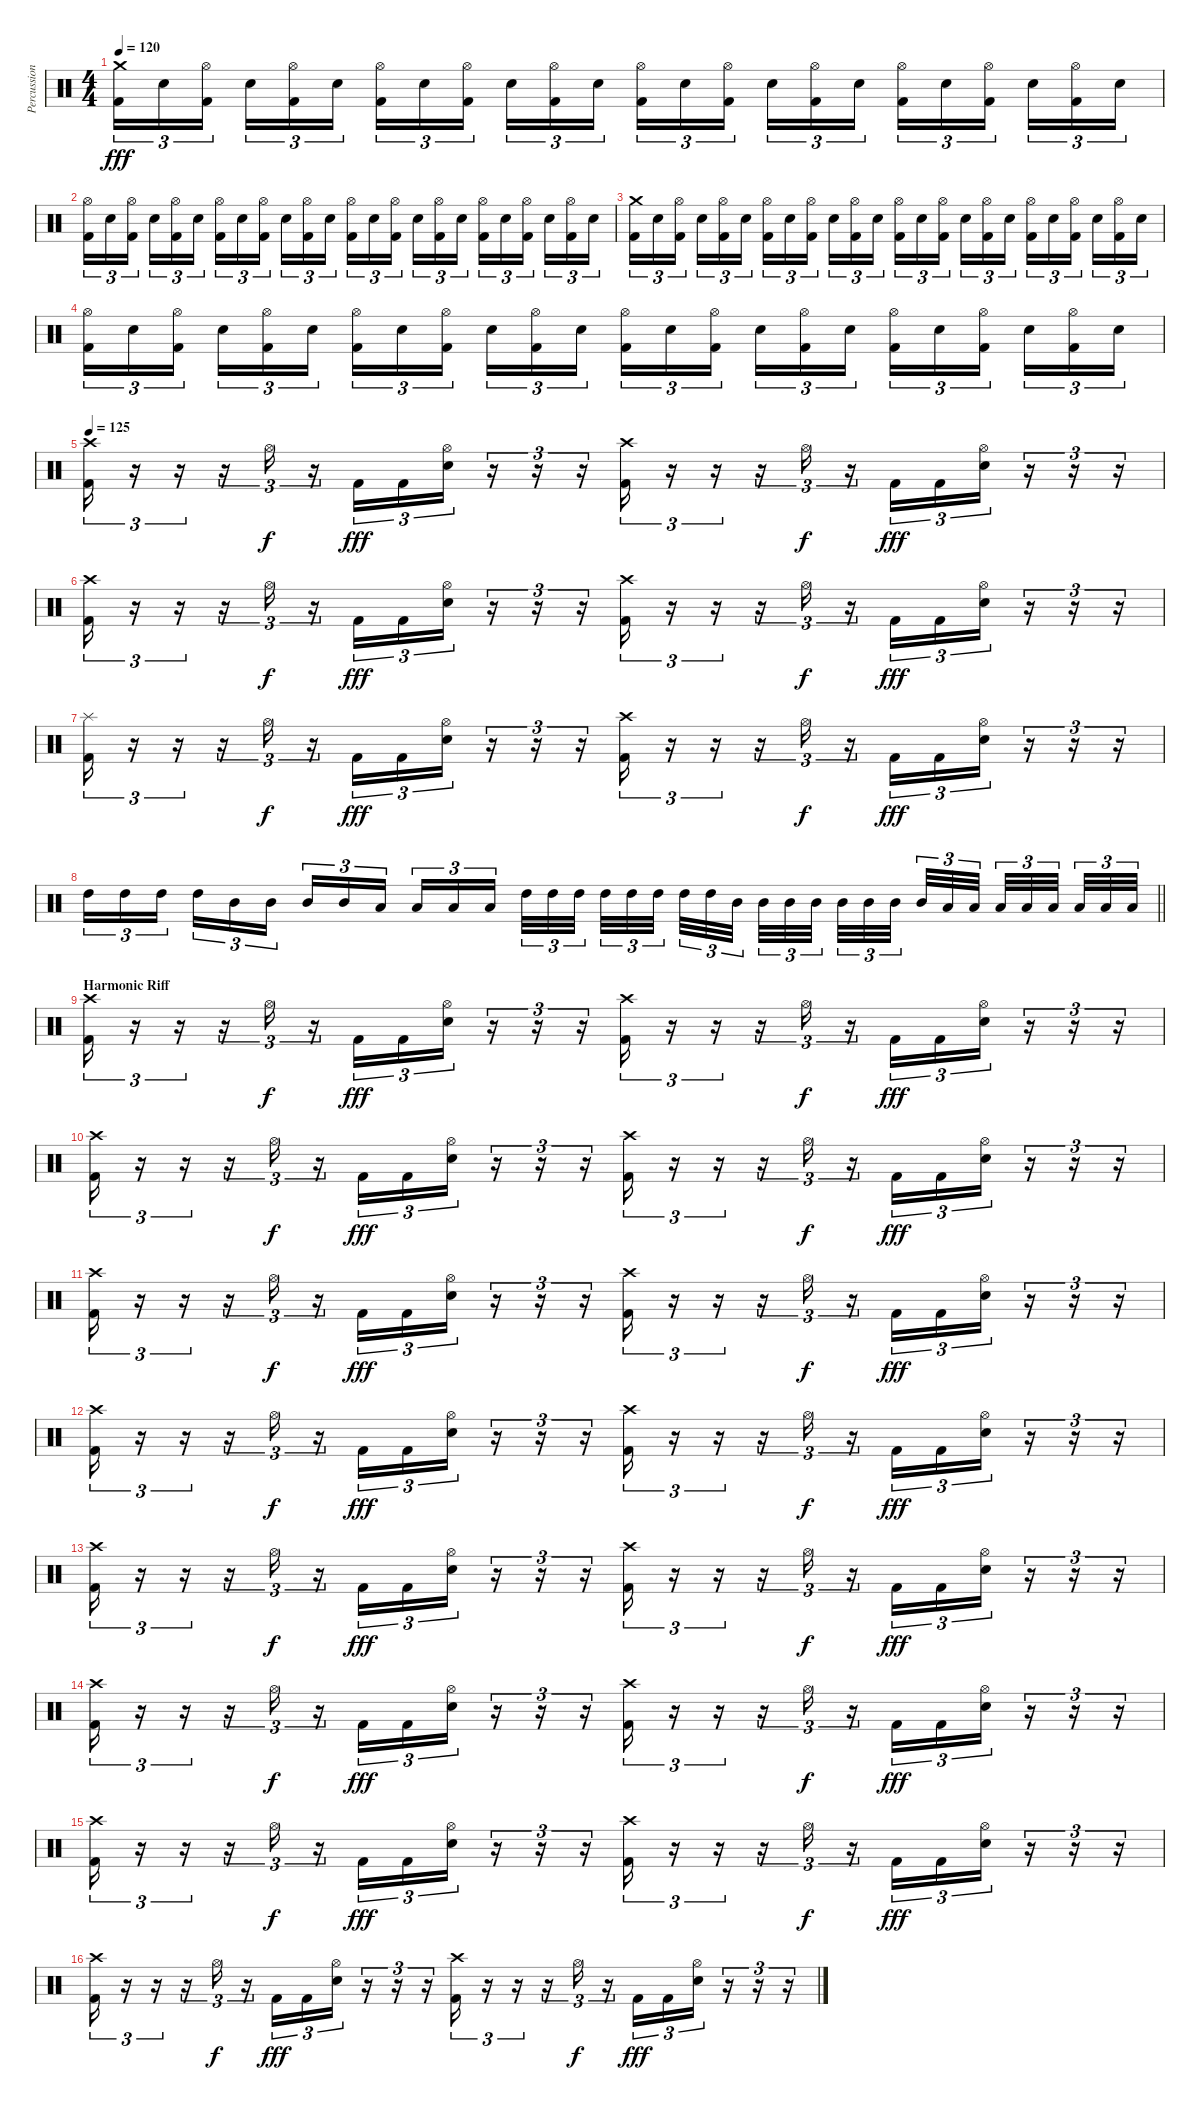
\track ("Percussions" "Percussion") {instrument percussion}
\staff {score}
\articulation defaults
\ts (4 4)
\tempo 120
\clef neutral
\ks c
("Crash medium (hit)" "Kick (hit) 2").16{tu (3 2) dy fff} "Snare (hit) 2".16{tu (3 2)} ("Hi-Hat (open)" "Kick (hit) 2").16{tu (3 2) beam splitsecondary} "Snare (hit) 2".16{tu (3 2)} ("Hi-Hat (open)" "Kick (hit) 2").16{tu (3 2)} "Snare (hit) 2".16{tu (3 2)} ("Hi-Hat (open)" "Kick (hit) 2").16{tu (3 2)} "Snare (hit) 2".16{tu (3 2)} ("Hi-Hat (open)" "Kick (hit) 2").16{tu (3 2) beam splitsecondary} "Snare (hit) 2".16{tu (3 2)} ("Hi-Hat (open)" "Kick (hit) 2").16{tu (3 2)} "Snare (hit) 2".16{tu (3 2)} ("Hi-Hat (open)" "Kick (hit) 2").16{tu (3 2)} "Snare (hit) 2".16{tu (3 2)} ("Hi-Hat (open)" "Kick (hit) 2").16{tu (3 2) beam splitsecondary} "Snare (hit) 2".16{tu (3 2)} ("Hi-Hat (open)" "Kick (hit) 2").16{tu (3 2)} "Snare (hit) 2".16{tu (3 2)} ("Hi-Hat (open)" "Kick (hit) 2").16{tu (3 2)} "Snare (hit) 2".16{tu (3 2)} ("Hi-Hat (open)" "Kick (hit) 2").16{tu (3 2) beam splitsecondary} "Snare (hit) 2".16{tu (3 2)} ("Hi-Hat (open)" "Kick (hit) 2").16{tu (3 2)} "Snare (hit) 2".16{tu (3 2)} |
("Hi-Hat (open)" "Kick (hit) 2").16{tu (3 2)} "Snare (hit) 2".16{tu (3 2)} ("Hi-Hat (open)" "Kick (hit) 2").16{tu (3 2) beam splitsecondary} "Snare (hit) 2".16{tu (3 2)} ("Hi-Hat (open)" "Kick (hit) 2").16{tu (3 2)} "Snare (hit) 2".16{tu (3 2)} ("Hi-Hat (open)" "Kick (hit) 2").16{tu (3 2)} "Snare (hit) 2".16{tu (3 2)} ("Hi-Hat (open)" "Kick (hit) 2").16{tu (3 2) beam splitsecondary} "Snare (hit) 2".16{tu (3 2)} ("Hi-Hat (open)" "Kick (hit) 2").16{tu (3 2)} "Snare (hit) 2".16{tu (3 2)} ("Hi-Hat (open)" "Kick (hit) 2").16{tu (3 2)} "Snare (hit) 2".16{tu (3 2)} ("Hi-Hat (open)" "Kick (hit) 2").16{tu (3 2) beam splitsecondary} "Snare (hit) 2".16{tu (3 2)} ("Hi-Hat (open)" "Kick (hit) 2").16{tu (3 2)} "Snare (hit) 2".16{tu (3 2)} ("Hi-Hat (open)" "Kick (hit) 2").16{tu (3 2)} "Snare (hit) 2".16{tu (3 2)} ("Hi-Hat (open)" "Kick (hit) 2").16{tu (3 2) beam splitsecondary} "Snare (hit) 2".16{tu (3 2)} ("Hi-Hat (open)" "Kick (hit) 2").16{tu (3 2)} "Snare (hit) 2".16{tu (3 2)} |
("Crash medium (hit)" "Kick (hit) 2").16{tu (3 2)} "Snare (hit) 2".16{tu (3 2)} ("Hi-Hat (open)" "Kick (hit) 2").16{tu (3 2) beam splitsecondary} "Snare (hit) 2".16{tu (3 2)} ("Hi-Hat (open)" "Kick (hit) 2").16{tu (3 2)} "Snare (hit) 2".16{tu (3 2)} ("Hi-Hat (open)" "Kick (hit) 2").16{tu (3 2)} "Snare (hit) 2".16{tu (3 2)} ("Hi-Hat (open)" "Kick (hit) 2").16{tu (3 2) beam splitsecondary} "Snare (hit) 2".16{tu (3 2)} ("Hi-Hat (open)" "Kick (hit) 2").16{tu (3 2)} "Snare (hit) 2".16{tu (3 2)} ("Hi-Hat (open)" "Kick (hit) 2").16{tu (3 2)} "Snare (hit) 2".16{tu (3 2)} ("Hi-Hat (open)" "Kick (hit) 2").16{tu (3 2) beam splitsecondary} "Snare (hit) 2".16{tu (3 2)} ("Hi-Hat (open)" "Kick (hit) 2").16{tu (3 2)} "Snare (hit) 2".16{tu (3 2)} ("Hi-Hat (open)" "Kick (hit) 2").16{tu (3 2)} "Snare (hit) 2".16{tu (3 2)} ("Hi-Hat (open)" "Kick (hit) 2").16{tu (3 2) beam splitsecondary} "Snare (hit) 2".16{tu (3 2)} ("Hi-Hat (open)" "Kick (hit) 2").16{tu (3 2)} "Snare (hit) 2".16{tu (3 2)} |
("Hi-Hat (open)" "Kick (hit) 2").16{tu (3 2)} "Snare (hit) 2".16{tu (3 2)} ("Hi-Hat (open)" "Kick (hit) 2").16{tu (3 2) beam splitsecondary} "Snare (hit) 2".16{tu (3 2)} ("Hi-Hat (open)" "Kick (hit) 2").16{tu (3 2)} "Snare (hit) 2".16{tu (3 2)} ("Hi-Hat (open)" "Kick (hit) 2").16{tu (3 2)} "Snare (hit) 2".16{tu (3 2)} ("Hi-Hat (open)" "Kick (hit) 2").16{tu (3 2) beam splitsecondary} "Snare (hit) 2".16{tu (3 2)} ("Hi-Hat (open)" "Kick (hit) 2").16{tu (3 2)} "Snare (hit) 2".16{tu (3 2)} ("Hi-Hat (open)" "Kick (hit) 2").16{tu (3 2)} "Snare (hit) 2".16{tu (3 2)} ("Hi-Hat (open)" "Kick (hit) 2").16{tu (3 2) beam splitsecondary} "Snare (hit) 2".16{tu (3 2)} ("Hi-Hat (open)" "Kick (hit) 2").16{tu (3 2)} "Snare (hit) 2".16{tu (3 2)} ("Hi-Hat (open)" "Kick (hit) 2").16{tu (3 2)} "Snare (hit) 2".16{tu (3 2)} ("Hi-Hat (open)" "Kick (hit) 2").16{tu (3 2) beam splitsecondary} "Snare (hit) 2".16{tu (3 2)} ("Hi-Hat (open)" "Kick (hit) 2").16{tu (3 2)} "Snare (hit) 2".16{tu (3 2)} |
\tempo 125
("Crash high (hit)" "Kick (hit) 2").16{tu (3 2)} r.16{tu (3 2)} r.16{tu (3 2)} r.16{tu (3 2)} "Hi-Hat (open)".16{tu (3 2) dy f} r.16{tu (3 2)} "Kick (hit) 2".16{tu (3 2) dy fff} "Kick (hit) 2".16{tu (3 2)} ("Hi-Hat (open)" "Snare (hit) 2").16{tu (3 2)} r.16{tu (3 2)} r.16{tu (3 2)} r.16{tu (3 2)} ("Crash high (hit)" "Kick (hit) 2").16{tu (3 2)} r.16{tu (3 2)} r.16{tu (3 2)} r.16{tu (3 2)} "Hi-Hat (open)".16{tu (3 2) dy f} r.16{tu (3 2)} "Kick (hit) 2".16{tu (3 2) dy fff} "Kick (hit) 2".16{tu (3 2)} ("Hi-Hat (open)" "Snare (hit) 2").16{tu (3 2)} r.16{tu (3 2)} r.16{tu (3 2)} r.16{tu (3 2)} |
("Crash high (hit)" "Kick (hit) 2").16{tu (3 2)} r.16{tu (3 2)} r.16{tu (3 2)} r.16{tu (3 2)} "Hi-Hat (open)".16{tu (3 2) dy f} r.16{tu (3 2)} "Kick (hit) 2".16{tu (3 2) dy fff} "Kick (hit) 2".16{tu (3 2)} ("Hi-Hat (open)" "Snare (hit) 2").16{tu (3 2)} r.16{tu (3 2)} r.16{tu (3 2)} r.16{tu (3 2)} ("Crash high (hit)" "Kick (hit) 2").16{tu (3 2)} r.16{tu (3 2)} r.16{tu (3 2)} r.16{tu (3 2)} "Hi-Hat (open)".16{tu (3 2) dy f} r.16{tu (3 2)} "Kick (hit) 2".16{tu (3 2) dy fff} "Kick (hit) 2".16{tu (3 2)} ("Hi-Hat (open)" "Snare (hit) 2").16{tu (3 2)} r.16{tu (3 2)} r.16{tu (3 2)} r.16{tu (3 2)} |
("Splash (hit)" "Kick (hit) 2").16{tu (3 2)} r.16{tu (3 2)} r.16{tu (3 2)} r.16{tu (3 2)} "Hi-Hat (open)".16{tu (3 2) dy f} r.16{tu (3 2)} "Kick (hit) 2".16{tu (3 2) dy fff} "Kick (hit) 2".16{tu (3 2)} ("Hi-Hat (open)" "Snare (hit) 2").16{tu (3 2)} r.16{tu (3 2)} r.16{tu (3 2)} r.16{tu (3 2)} ("Crash high (hit)" "Kick (hit) 2").16{tu (3 2)} r.16{tu (3 2)} r.16{tu (3 2)} r.16{tu (3 2)} "Hi-Hat (open)".16{tu (3 2) dy f} r.16{tu (3 2)} "Kick (hit) 2".16{tu (3 2) dy fff} "Kick (hit) 2".16{tu (3 2)} ("Hi-Hat (open)" "Snare (hit) 2").16{tu (3 2)} r.16{tu (3 2)} r.16{tu (3 2)} r.16{tu (3 2)} |
\barLineRight lightlight "High Tom (hit)".16{tu (3 2)} "High Tom (hit)".16{tu (3 2)} "High Tom (hit)".16{tu (3 2) beam splitsecondary} "High Tom (hit)".16{tu (3 2)} "Mid Tom (hit)".16{tu (3 2)} "Mid Tom (hit)".16{tu (3 2)} "Mid Tom (hit)".16{tu (3 2)} "Mid Tom (hit)".16{tu (3 2)} "Low Tom (hit)".16{tu (3 2) beam splitsecondary} "Low Tom (hit)".16{tu (3 2)} "Low Tom (hit)".16{tu (3 2)} "Low Tom (hit)".16{tu (3 2)} "High Tom (hit)".32{tu (3 2)} "High Tom (hit)".32{tu (3 2)} "High Tom (hit)".32{tu (3 2) beam splitsecondary} "High Tom (hit)".32{tu (3 2)} "High Tom (hit)".32{tu (3 2)} "High Tom (hit)".32{tu (3 2) beam splitsecondary} "High Tom (hit)".32{tu (3 2)} "High Tom (hit)".32{tu (3 2)} "Mid Tom (hit)".32{tu (3 2) beam splitsecondary} "Mid Tom (hit)".32{tu (3 2)} "Mid Tom (hit)".32{tu (3 2)} "Mid Tom (hit)".32{tu (3 2)} "Mid Tom (hit)".32{tu (3 2)} "Mid Tom (hit)".32{tu (3 2)} "Mid Tom (hit)".32{tu (3 2) beam splitsecondary} "Mid Tom (hit)".32{tu (3 2)} "Low Tom (hit)".32{tu (3 2)} "Low Tom (hit)".32{tu (3 2) beam splitsecondary} "Low Tom (hit)".32{tu (3 2)} "Low Tom (hit)".32{tu (3 2)} "Low Tom (hit)".32{tu (3 2) beam splitsecondary} "Low Tom (hit)".32{tu (3 2)} "Low Tom (hit)".32{tu (3 2)} "Low Tom (hit)".32{tu (3 2)}
|
\section ("" "Harmonic Riff")
("Crash high (hit)" "Kick (hit) 2").16{tu (3 2)} r.16{tu (3 2)} r.16{tu (3 2)} r.16{tu (3 2)} "Hi-Hat (open)".16{tu (3 2) dy f} r.16{tu (3 2)} "Kick (hit) 2".16{tu (3 2) dy fff} "Kick (hit) 2".16{tu (3 2)} ("Hi-Hat (open)" "Snare (hit) 2").16{tu (3 2)} r.16{tu (3 2)} r.16{tu (3 2)} r.16{tu (3 2)} ("Crash high (hit)" "Kick (hit) 2").16{tu (3 2)} r.16{tu (3 2)} r.16{tu (3 2)} r.16{tu (3 2)} "Hi-Hat (open)".16{tu (3 2) dy f} r.16{tu (3 2)} "Kick (hit) 2".16{tu (3 2) dy fff} "Kick (hit) 2".16{tu (3 2)} ("Hi-Hat (open)" "Snare (hit) 2").16{tu (3 2)} r.16{tu (3 2)} r.16{tu (3 2)} r.16{tu (3 2)} |
("Crash high (hit)" "Kick (hit) 2").16{tu (3 2)} r.16{tu (3 2)} r.16{tu (3 2)} r.16{tu (3 2)} "Hi-Hat (open)".16{tu (3 2) dy f} r.16{tu (3 2)} "Kick (hit) 2".16{tu (3 2) dy fff} "Kick (hit) 2".16{tu (3 2)} ("Hi-Hat (open)" "Snare (hit) 2").16{tu (3 2)} r.16{tu (3 2)} r.16{tu (3 2)} r.16{tu (3 2)} ("Crash high (hit)" "Kick (hit) 2").16{tu (3 2)} r.16{tu (3 2)} r.16{tu (3 2)} r.16{tu (3 2)} "Hi-Hat (open)".16{tu (3 2) dy f} r.16{tu (3 2)} "Kick (hit) 2".16{tu (3 2) dy fff} "Kick (hit) 2".16{tu (3 2)} ("Hi-Hat (open)" "Snare (hit) 2").16{tu (3 2)} r.16{tu (3 2)} r.16{tu (3 2)} r.16{tu (3 2)} |
("Crash high (hit)" "Kick (hit) 2").16{tu (3 2)} r.16{tu (3 2)} r.16{tu (3 2)} r.16{tu (3 2)} "Hi-Hat (open)".16{tu (3 2) dy f} r.16{tu (3 2)} "Kick (hit) 2".16{tu (3 2) dy fff} "Kick (hit) 2".16{tu (3 2)} ("Hi-Hat (open)" "Snare (hit) 2").16{tu (3 2)} r.16{tu (3 2)} r.16{tu (3 2)} r.16{tu (3 2)} ("Crash high (hit)" "Kick (hit) 2").16{tu (3 2)} r.16{tu (3 2)} r.16{tu (3 2)} r.16{tu (3 2)} "Hi-Hat (open)".16{tu (3 2) dy f} r.16{tu (3 2)} "Kick (hit) 2".16{tu (3 2) dy fff} "Kick (hit) 2".16{tu (3 2)} ("Hi-Hat (open)" "Snare (hit) 2").16{tu (3 2)} r.16{tu (3 2)} r.16{tu (3 2)} r.16{tu (3 2)} |
("Crash high (hit)" "Kick (hit) 2").16{tu (3 2)} r.16{tu (3 2)} r.16{tu (3 2)} r.16{tu (3 2)} "Hi-Hat (open)".16{tu (3 2) dy f} r.16{tu (3 2)} "Kick (hit) 2".16{tu (3 2) dy fff} "Kick (hit) 2".16{tu (3 2)} ("Hi-Hat (open)" "Snare (hit) 2").16{tu (3 2)} r.16{tu (3 2)} r.16{tu (3 2)} r.16{tu (3 2)} ("Crash high (hit)" "Kick (hit) 2").16{tu (3 2)} r.16{tu (3 2)} r.16{tu (3 2)} r.16{tu (3 2)} "Hi-Hat (open)".16{tu (3 2) dy f} r.16{tu (3 2)} "Kick (hit) 2".16{tu (3 2) dy fff} "Kick (hit) 2".16{tu (3 2)} ("Hi-Hat (open)" "Snare (hit) 2").16{tu (3 2)} r.16{tu (3 2)} r.16{tu (3 2)} r.16{tu (3 2)} |
("Crash high (hit)" "Kick (hit) 2").16{tu (3 2)} r.16{tu (3 2)} r.16{tu (3 2)} r.16{tu (3 2)} "Hi-Hat (open)".16{tu (3 2) dy f} r.16{tu (3 2)} "Kick (hit) 2".16{tu (3 2) dy fff} "Kick (hit) 2".16{tu (3 2)} ("Hi-Hat (open)" "Snare (hit) 2").16{tu (3 2)} r.16{tu (3 2)} r.16{tu (3 2)} r.16{tu (3 2)} ("Crash high (hit)" "Kick (hit) 2").16{tu (3 2)} r.16{tu (3 2)} r.16{tu (3 2)} r.16{tu (3 2)} "Hi-Hat (open)".16{tu (3 2) dy f} r.16{tu (3 2)} "Kick (hit) 2".16{tu (3 2) dy fff} "Kick (hit) 2".16{tu (3 2)} ("Hi-Hat (open)" "Snare (hit) 2").16{tu (3 2)} r.16{tu (3 2)} r.16{tu (3 2)} r.16{tu (3 2)} |
("Crash high (hit)" "Kick (hit) 2").16{tu (3 2)} r.16{tu (3 2)} r.16{tu (3 2)} r.16{tu (3 2)} "Hi-Hat (open)".16{tu (3 2) dy f} r.16{tu (3 2)} "Kick (hit) 2".16{tu (3 2) dy fff} "Kick (hit) 2".16{tu (3 2)} ("Hi-Hat (open)" "Snare (hit) 2").16{tu (3 2)} r.16{tu (3 2)} r.16{tu (3 2)} r.16{tu (3 2)} ("Crash high (hit)" "Kick (hit) 2").16{tu (3 2)} r.16{tu (3 2)} r.16{tu (3 2)} r.16{tu (3 2)} "Hi-Hat (open)".16{tu (3 2) dy f} r.16{tu (3 2)} "Kick (hit) 2".16{tu (3 2) dy fff} "Kick (hit) 2".16{tu (3 2)} ("Hi-Hat (open)" "Snare (hit) 2").16{tu (3 2)} r.16{tu (3 2)} r.16{tu (3 2)} r.16{tu (3 2)} |
("Crash high (hit)" "Kick (hit) 2").16{tu (3 2)} r.16{tu (3 2)} r.16{tu (3 2)} r.16{tu (3 2)} "Hi-Hat (open)".16{tu (3 2) dy f} r.16{tu (3 2)} "Kick (hit) 2".16{tu (3 2) dy fff} "Kick (hit) 2".16{tu (3 2)} ("Hi-Hat (open)" "Snare (hit) 2").16{tu (3 2)} r.16{tu (3 2)} r.16{tu (3 2)} r.16{tu (3 2)} ("Crash high (hit)" "Kick (hit) 2").16{tu (3 2)} r.16{tu (3 2)} r.16{tu (3 2)} r.16{tu (3 2)} "Hi-Hat (open)".16{tu (3 2) dy f} r.16{tu (3 2)} "Kick (hit) 2".16{tu (3 2) dy fff} "Kick (hit) 2".16{tu (3 2)} ("Hi-Hat (open)" "Snare (hit) 2").16{tu (3 2)} r.16{tu (3 2)} r.16{tu (3 2)} r.16{tu (3 2)} |
("Crash high (hit)" "Kick (hit) 2").16{tu (3 2)} r.16{tu (3 2)} r.16{tu (3 2)} r.16{tu (3 2)} "Hi-Hat (open)".16{tu (3 2) dy f} r.16{tu (3 2)} "Kick (hit) 2".16{tu (3 2) dy fff} "Kick (hit) 2".16{tu (3 2)} ("Hi-Hat (open)" "Snare (hit) 2").16{tu (3 2)} r.16{tu (3 2)} r.16{tu (3 2)} r.16{tu (3 2)} ("Crash high (hit)" "Kick (hit) 2").16{tu (3 2)} r.16{tu (3 2)} r.16{tu (3 2)} r.16{tu (3 2)} "Hi-Hat (open)".16{tu (3 2) dy f} r.16{tu (3 2)} "Kick (hit) 2".16{tu (3 2) dy fff} "Kick (hit) 2".16{tu (3 2)} ("Hi-Hat (open)" "Snare (hit) 2").16{tu (3 2)} r.16{tu (3 2)} r.16{tu (3 2)} r.16{tu (3 2)}
